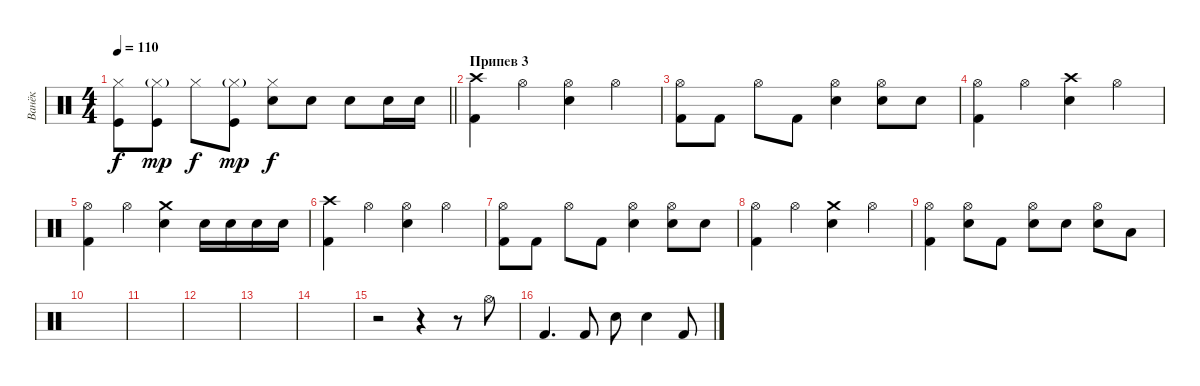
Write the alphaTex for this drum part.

\track ("Ванёк" "Ванёк") {instrument percussion}
\staff {score}
\articulation defaults
\ts (4 4)
\tempo 110
\clef neutral
\barLineRight lightlight
\ks c
("Kick (hit)" "Hi-Hat (closed)").8{dy f} ("Kick (hit)" "Hi-Hat (closed)"{g}).8{dy mp} "Hi-Hat (closed)".8{dy f} ("Kick (hit)" "Hi-Hat (closed)"{g}).8{dy mp} ("Hi-Hat (closed)" "Electric Snare (hit)").8{dy f} "Electric Snare (hit)".8 "Electric Snare (hit)".8 "Electric Snare (hit)".16 "Electric Snare (hit)".16 |
\section ("" "Припев 3")
("Crash high (hit)" "Kick (hit) 2").4 "Hi-Hat (open)".4 ("Hi-Hat (open)" "Electric Snare (hit)").4 "Hi-Hat (open)".4 |
("Hi-Hat (open)" "Kick (hit) 2").8 "Kick (hit) 2".8 "Hi-Hat (open)".8 "Kick (hit) 2".8 ("Hi-Hat (open)" "Electric Snare (hit)").4 ("Hi-Hat (open)" "Electric Snare (hit)").8 "Electric Snare (hit)".8 |
("Hi-Hat (open)" "Kick (hit) 2").4 "Hi-Hat (open)".4 ("Crash high (hit)" "Electric Snare (hit)").4 "Hi-Hat (open)".4 |
("Hi-Hat (open)" "Kick (hit) 2").4 "Hi-Hat (open)".4 ("Crash medium (hit)" "Electric Snare (hit)").4 "Electric Snare (hit)".16 "Electric Snare (hit)".16 "Electric Snare (hit)".16 "Electric Snare (hit)".16 |
("Crash high (hit)" "Kick (hit) 2").4 "Hi-Hat (open)".4 ("Hi-Hat (open)" "Electric Snare (hit)").4 "Hi-Hat (open)".4 |
("Hi-Hat (open)" "Kick (hit) 2").8 "Kick (hit) 2".8 "Hi-Hat (open)".8 "Kick (hit) 2".8 ("Hi-Hat (open)" "Electric Snare (hit)").4 ("Hi-Hat (open)" "Electric Snare (hit)").8 "Electric Snare (hit)".8 |
("Hi-Hat (open)" "Kick (hit) 2").4 "Hi-Hat (open)".4 ("Crash medium (hit)" "Electric Snare (hit)").4 "Hi-Hat (open)".4 |
("Hi-Hat (open)" "Kick (hit) 2").4 ("Hi-Hat (open)" "Electric Snare (hit)").8 "Kick (hit) 2".8 ("Hi-Hat (open)" "Electric Snare (hit)").8 "Electric Snare (hit)".8 ("Hi-Hat (open)" "Electric Snare (hit)").8 "Low Floor Tom (hit)".8 |
|
|
|
|
|
r.2 r.4 r.8 "Hi-Hat (open)".8 |
"Kick (hit) 2".4{d} "Kick (hit) 2".8 "Electric Snare (hit)".8 "Electric Snare (hit)".4 "Kick (hit) 2".8
